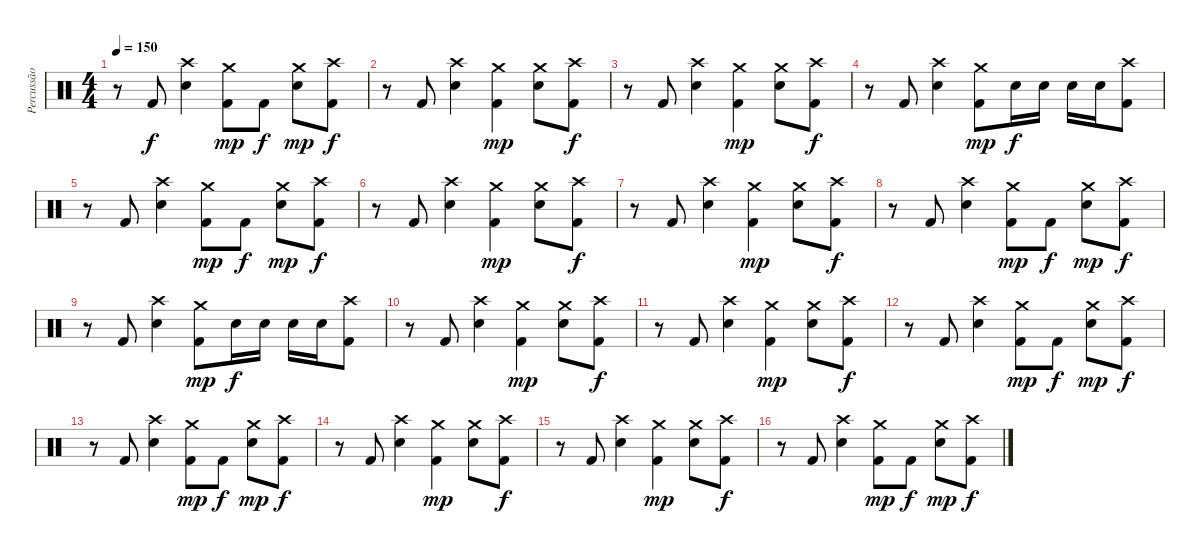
\track ("Percussão" "Percussão") {instrument percussion}
\staff {score}
\articulation defaults
\ts (4 4)
\tempo 150
\clef neutral
\ks c
r.8{dy f} "Kick (hit) 2".8 ("Crash high (hit)" "Snare (hit) 2").4 ("Crash medium (hit)" "Kick (hit) 2").8{dy mp} "Kick (hit) 2".8{dy f} ("Crash medium (hit)" "Snare (hit) 2").8{dy mp} ("Crash high (hit)" "Kick (hit) 2").8{dy f} |
r.8 "Kick (hit) 2".8 ("Crash high (hit)" "Snare (hit) 2").4 ("Crash medium (hit)" "Kick (hit) 2").4{dy mp} ("Crash medium (hit)" "Snare (hit) 2").8 ("Crash high (hit)" "Kick (hit) 2").8{dy f} |
r.8 "Kick (hit) 2".8 ("Crash high (hit)" "Snare (hit) 2").4 ("Crash medium (hit)" "Kick (hit) 2").4{dy mp} ("Crash medium (hit)" "Snare (hit) 2").8 ("Crash high (hit)" "Kick (hit) 2").8{dy f} |
r.8 "Kick (hit) 2".8 ("Crash high (hit)" "Snare (hit) 2").4 ("Crash medium (hit)" "Kick (hit) 2").8{dy mp} "Snare (hit) 2".16{dy f} "Snare (hit) 2".16 "Snare (hit) 2".16 "Snare (hit) 2".16 ("Crash high (hit)" "Kick (hit) 2").8 |
r.8 "Kick (hit) 2".8 ("Crash high (hit)" "Snare (hit) 2").4 ("Crash medium (hit)" "Kick (hit) 2").8{dy mp} "Kick (hit) 2".8{dy f} ("Crash medium (hit)" "Snare (hit) 2").8{dy mp} ("Crash high (hit)" "Kick (hit) 2").8{dy f} |
r.8 "Kick (hit) 2".8 ("Crash high (hit)" "Snare (hit) 2").4 ("Crash medium (hit)" "Kick (hit) 2").4{dy mp} ("Crash medium (hit)" "Snare (hit) 2").8 ("Crash high (hit)" "Kick (hit) 2").8{dy f} |
r.8 "Kick (hit) 2".8 ("Crash high (hit)" "Snare (hit) 2").4 ("Crash medium (hit)" "Kick (hit) 2").4{dy mp} ("Crash medium (hit)" "Snare (hit) 2").8 ("Crash high (hit)" "Kick (hit) 2").8{dy f} |
r.8 "Kick (hit) 2".8 ("Crash high (hit)" "Snare (hit) 2").4 ("Crash medium (hit)" "Kick (hit) 2").8{dy mp} "Kick (hit) 2".8{dy f} ("Crash medium (hit)" "Snare (hit) 2").8{dy mp} ("Crash high (hit)" "Kick (hit) 2").8{dy f} |
r.8 "Kick (hit) 2".8 ("Crash high (hit)" "Snare (hit) 2").4 ("Crash medium (hit)" "Kick (hit) 2").8{dy mp} "Snare (hit) 2".16{dy f} "Snare (hit) 2".16 "Snare (hit) 2".16 "Snare (hit) 2".16 ("Crash high (hit)" "Kick (hit) 2").8 |
r.8 "Kick (hit) 2".8 ("Crash high (hit)" "Snare (hit) 2").4 ("Crash medium (hit)" "Kick (hit) 2").4{dy mp} ("Crash medium (hit)" "Snare (hit) 2").8 ("Crash high (hit)" "Kick (hit) 2").8{dy f} |
r.8 "Kick (hit) 2".8 ("Crash high (hit)" "Snare (hit) 2").4 ("Crash medium (hit)" "Kick (hit) 2").4{dy mp} ("Crash medium (hit)" "Snare (hit) 2").8 ("Crash high (hit)" "Kick (hit) 2").8{dy f} |
r.8 "Kick (hit) 2".8 ("Crash high (hit)" "Snare (hit) 2").4 ("Crash medium (hit)" "Kick (hit) 2").8{dy mp} "Kick (hit) 2".8{dy f} ("Crash medium (hit)" "Snare (hit) 2").8{dy mp} ("Crash high (hit)" "Kick (hit) 2").8{dy f} |
r.8 "Kick (hit) 2".8 ("Crash high (hit)" "Snare (hit) 2").4 ("Crash medium (hit)" "Kick (hit) 2").8{dy mp} "Kick (hit) 2".8{dy f} ("Crash medium (hit)" "Snare (hit) 2").8{dy mp} ("Crash high (hit)" "Kick (hit) 2").8{dy f} |
r.8 "Kick (hit) 2".8 ("Crash high (hit)" "Snare (hit) 2").4 ("Crash medium (hit)" "Kick (hit) 2").4{dy mp} ("Crash medium (hit)" "Snare (hit) 2").8 ("Crash high (hit)" "Kick (hit) 2").8{dy f} |
r.8 "Kick (hit) 2".8 ("Crash high (hit)" "Snare (hit) 2").4 ("Crash medium (hit)" "Kick (hit) 2").4{dy mp} ("Crash medium (hit)" "Snare (hit) 2").8 ("Crash high (hit)" "Kick (hit) 2").8{dy f} |
r.8 "Kick (hit) 2".8 ("Crash high (hit)" "Snare (hit) 2").4 ("Crash medium (hit)" "Kick (hit) 2").8{dy mp} "Kick (hit) 2".8{dy f} ("Crash medium (hit)" "Snare (hit) 2").8{dy mp} ("Crash high (hit)" "Kick (hit) 2").8{dy f}
